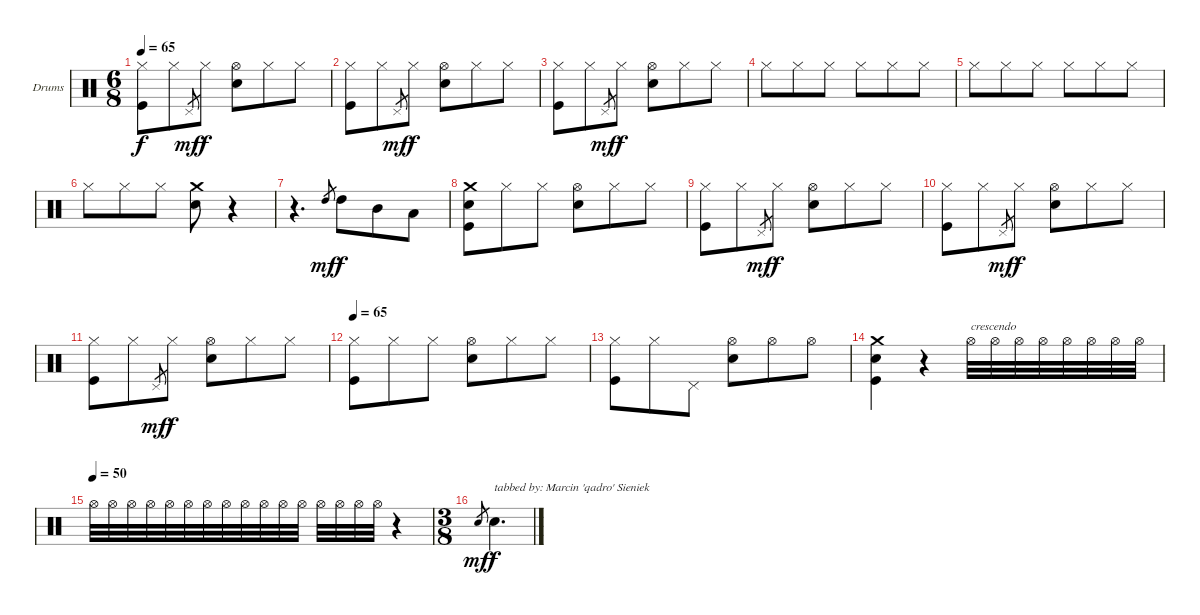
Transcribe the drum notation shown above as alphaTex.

\bracketExtendMode groupsimilarinstruments
\firstSystemTrackNameOrientation horizontal
\otherSystemsTrackNameOrientation horizontal
\track ("Drumkit" "Drums") {instrument percussion}
\staff {score}
\articulation defaults
\ts (6 8)
\tempo 65
\clef neutral
\ks c
("Hi-Hat (closed)" "Kick (hit)").8{dy f} "Hi-Hat (closed)".8 "Pedal Hi-Hat (hit)".8{gr dy mf} "Hi-Hat (closed)".8{dy f} ("Hi-Hat (open)" "Snare (hit) 2").8 "Hi-Hat (closed)".8 "Hi-Hat (closed)".8 |
("Hi-Hat (closed)" "Kick (hit)").8 "Hi-Hat (closed)".8 "Pedal Hi-Hat (hit)".8{gr dy mf} "Hi-Hat (closed)".8{dy f} ("Hi-Hat (open)" "Snare (hit) 2").8 "Hi-Hat (closed)".8 "Hi-Hat (closed)".8 |
("Hi-Hat (closed)" "Kick (hit)").8 "Hi-Hat (closed)".8 "Pedal Hi-Hat (hit)".8{gr dy mf} "Hi-Hat (closed)".8{dy f} ("Hi-Hat (open)" "Snare (hit) 2").8 "Hi-Hat (closed)".8 "Hi-Hat (closed)".8 |
"Hi-Hat (closed)".8 "Hi-Hat (closed)".8 "Hi-Hat (closed)".8 "Hi-Hat (closed)".8 "Hi-Hat (closed)".8 "Hi-Hat (closed)".8 |
"Hi-Hat (closed)".8 "Hi-Hat (closed)".8 "Hi-Hat (closed)".8 "Hi-Hat (closed)".8 "Hi-Hat (closed)".8 "Hi-Hat (closed)".8 |
"Hi-Hat (closed)".8 "Hi-Hat (closed)".8 "Hi-Hat (closed)".8 ("Crash medium (hit)" "Snare (hit) 2").8 r.4 |
r.4{d} "High Tom (hit)".8{gr dy mf} "High Tom (hit)".8{dy f} "Mid Tom (hit)".8 "Low Tom (hit)".8 |
("Crash medium (hit)" "Snare (hit) 2" "Kick (hit)").8 "Hi-Hat (closed)".8 "Hi-Hat (closed)".8 ("Hi-Hat (open)" "Snare (hit) 2").8 "Hi-Hat (closed)".8 "Hi-Hat (closed)".8 |
("Hi-Hat (closed)" "Kick (hit)").8 "Hi-Hat (closed)".8 "Pedal Hi-Hat (hit)".8{gr dy mf} "Hi-Hat (closed)".8{dy f} ("Hi-Hat (open)" "Snare (hit) 2").8 "Hi-Hat (closed)".8 "Hi-Hat (closed)".8 |
("Hi-Hat (closed)" "Kick (hit)").8 "Hi-Hat (closed)".8 "Pedal Hi-Hat (hit)".8{gr dy mf} "Hi-Hat (closed)".8{dy f} ("Hi-Hat (open)" "Snare (hit) 2").8 "Hi-Hat (closed)".8 "Hi-Hat (closed)".8 |
("Hi-Hat (closed)" "Kick (hit)").8 "Hi-Hat (closed)".8 "Pedal Hi-Hat (hit)".8{gr dy mf} "Hi-Hat (closed)".8{dy f} ("Hi-Hat (open)" "Snare (hit) 2").8 "Hi-Hat (closed)".8 "Hi-Hat (closed)".8 |
\tempo 65
("Hi-Hat (closed)" "Kick (hit)").8 "Hi-Hat (closed)".8 "Hi-Hat (closed)".8 ("Hi-Hat (open)" "Snare (hit) 2").8 "Hi-Hat (closed)".8 "Hi-Hat (closed)".8 |
("Hi-Hat (closed)" "Kick (hit)").8 "Hi-Hat (closed)".8 "Pedal Hi-Hat (hit)".8 ("Hi-Hat (open)" "Snare (hit) 2").8 "Hi-Hat (open)".8 "Hi-Hat (open)".8 |
("Crash medium (hit)" "Snare (hit) 2" "Kick (hit)").4 r.4 "Hi-Hat (open)".32{txt "crescendo"} "Hi-Hat (open)".32 "Hi-Hat (open)".32 "Hi-Hat (open)".32 "Hi-Hat (open)".32 "Hi-Hat (open)".32 "Hi-Hat (open)".32 "Hi-Hat (open)".32 |
\tempo (50)
"Hi-Hat (open)".32 "Hi-Hat (open)".32 "Hi-Hat (open)".32 "Hi-Hat (open)".32 "Hi-Hat (open)".32 "Hi-Hat (open)".32 "Hi-Hat (open)".32 "Hi-Hat (open)".32 "Hi-Hat (open)".32 "Hi-Hat (open)".32 "Hi-Hat (open)".32 "Hi-Hat (open)".32 "Hi-Hat (open)".32 "Hi-Hat (open)".32 "Hi-Hat (open)".32 "Hi-Hat (open)".32 r.4 |
\ts (3 8)
"Snare (hit) 2".8{gr dy mf} "Snare (hit) 2".4{d txt "tabbed by: Marcin 'qadro' Sieniek" dy f}
